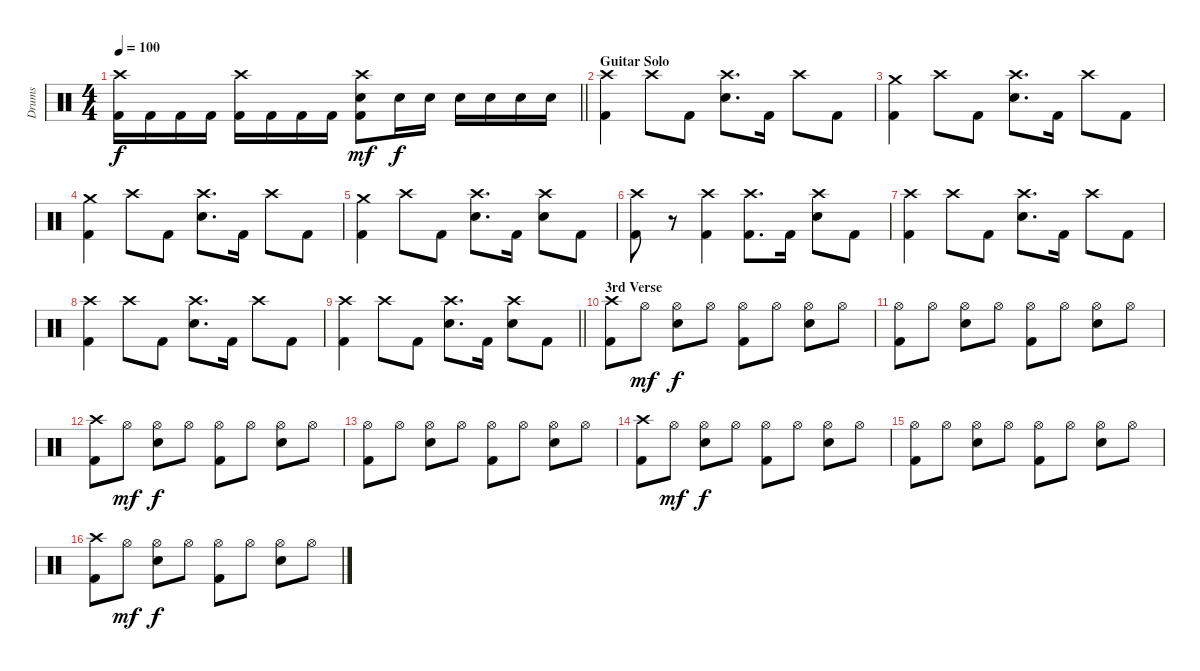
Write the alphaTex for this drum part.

\track ("Drums" "Drums") {instrument percussion}
\staff {score}
\articulation defaults
\ts (4 4)
\tempo 100
\clef neutral
\barLineRight lightlight
\ks c
("Crash high (hit)" "Kick (hit) 2").16{dy f} "Kick (hit) 2".16 "Kick (hit) 2".16 "Kick (hit) 2".16 ("Crash high (hit)" "Kick (hit) 2").16 "Kick (hit) 2".16 "Kick (hit) 2".16 "Kick (hit) 2".16 ("Crash high (hit)" "Snare (hit) 2" "Kick (hit) 2").8{dy mf} "Snare (hit) 2".16{dy f} "Snare (hit) 2".16 "Snare (hit) 2".16 "Snare (hit) 2".16 "Snare (hit) 2".16 "Snare (hit) 2".16 |
\section ("" "Guitar Solo")
("Crash high (hit)" "Kick (hit) 2").4 "Crash high (hit)".8 "Kick (hit) 2".8 ("Crash high (hit)" "Snare (hit) 2").8{d} "Kick (hit) 2".16 "Crash high (hit)".8 "Kick (hit) 2".8 |
("Crash medium (hit)" "Kick (hit) 2").4 "Crash high (hit)".8 "Kick (hit) 2".8 ("Crash high (hit)" "Snare (hit) 2").8{d} "Kick (hit) 2".16 "Crash high (hit)".8 "Kick (hit) 2".8 |
("Crash medium (hit)" "Kick (hit) 2").4 "Crash high (hit)".8 "Kick (hit) 2".8 ("Crash high (hit)" "Snare (hit) 2").8{d} "Kick (hit) 2".16 "Crash high (hit)".8 "Kick (hit) 2".8 |
("Crash medium (hit)" "Kick (hit) 2").4 "Crash high (hit)".8 "Kick (hit) 2".8 ("Crash high (hit)" "Snare (hit) 2").8{d} "Kick (hit) 2".16 ("Crash high (hit)" "Snare (hit) 2").8 "Kick (hit) 2".8 |
("Crash high (hit)" "Kick (hit) 2").8 r.8 ("Crash high (hit)" "Kick (hit) 2").4 ("Crash high (hit)" "Kick (hit) 2").8{d} "Kick (hit) 2".16 ("Crash high (hit)" "Snare (hit) 2").8 "Kick (hit) 2".8 |
("Crash high (hit)" "Kick (hit) 2").4 "Crash high (hit)".8 "Kick (hit) 2".8 ("Crash high (hit)" "Snare (hit) 2").8{d} "Kick (hit) 2".16 "Crash high (hit)".8 "Kick (hit) 2".8 |
("Crash high (hit)" "Kick (hit) 2").4 "Crash high (hit)".8 "Kick (hit) 2".8 ("Crash high (hit)" "Snare (hit) 2").8{d} "Kick (hit) 2".16 "Crash high (hit)".8 "Kick (hit) 2".8 |
\barLineRight lightlight
("Crash high (hit)" "Kick (hit) 2").4 "Crash high (hit)".8 "Kick (hit) 2".8 ("Crash high (hit)" "Snare (hit) 2").8{d} "Kick (hit) 2".16 ("Crash high (hit)" "Snare (hit) 2").8 "Kick (hit) 2".8 |
\section ("" "3rd Verse")
("Crash high (hit)" "Kick (hit) 2").8 "Hi-Hat (open)".8{dy mf} ("Hi-Hat (open)" "Snare (hit) 2").8{dy f} "Hi-Hat (open)".8 ("Hi-Hat (open)" "Kick (hit) 2").8 "Hi-Hat (open)".8 ("Hi-Hat (open)" "Snare (hit) 2").8 "Hi-Hat (open)".8 |
("Hi-Hat (open)" "Kick (hit) 2").8 "Hi-Hat (open)".8 ("Hi-Hat (open)" "Snare (hit) 2").8 "Hi-Hat (open)".8 ("Hi-Hat (open)" "Kick (hit) 2").8 "Hi-Hat (open)".8 ("Hi-Hat (open)" "Snare (hit) 2").8 "Hi-Hat (open)".8 |
("Crash high (hit)" "Kick (hit) 2").8 "Hi-Hat (open)".8{dy mf} ("Hi-Hat (open)" "Snare (hit) 2").8{dy f} "Hi-Hat (open)".8 ("Hi-Hat (open)" "Kick (hit) 2").8 "Hi-Hat (open)".8 ("Hi-Hat (open)" "Snare (hit) 2").8 "Hi-Hat (open)".8 |
("Hi-Hat (open)" "Kick (hit) 2").8 "Hi-Hat (open)".8 ("Hi-Hat (open)" "Snare (hit) 2").8 "Hi-Hat (open)".8 ("Hi-Hat (open)" "Kick (hit) 2").8 "Hi-Hat (open)".8 ("Hi-Hat (open)" "Snare (hit) 2").8 "Hi-Hat (open)".8 |
("Crash high (hit)" "Kick (hit) 2").8 "Hi-Hat (open)".8{dy mf} ("Hi-Hat (open)" "Snare (hit) 2").8{dy f} "Hi-Hat (open)".8 ("Hi-Hat (open)" "Kick (hit) 2").8 "Hi-Hat (open)".8 ("Hi-Hat (open)" "Snare (hit) 2").8 "Hi-Hat (open)".8 |
("Hi-Hat (open)" "Kick (hit) 2").8 "Hi-Hat (open)".8 ("Hi-Hat (open)" "Snare (hit) 2").8 "Hi-Hat (open)".8 ("Hi-Hat (open)" "Kick (hit) 2").8 "Hi-Hat (open)".8 ("Hi-Hat (open)" "Snare (hit) 2").8 "Hi-Hat (open)".8 |
("Crash high (hit)" "Kick (hit) 2").8 "Hi-Hat (open)".8{dy mf} ("Hi-Hat (open)" "Snare (hit) 2").8{dy f} "Hi-Hat (open)".8 ("Hi-Hat (open)" "Kick (hit) 2").8 "Hi-Hat (open)".8 ("Hi-Hat (open)" "Snare (hit) 2").8 "Hi-Hat (open)".8
